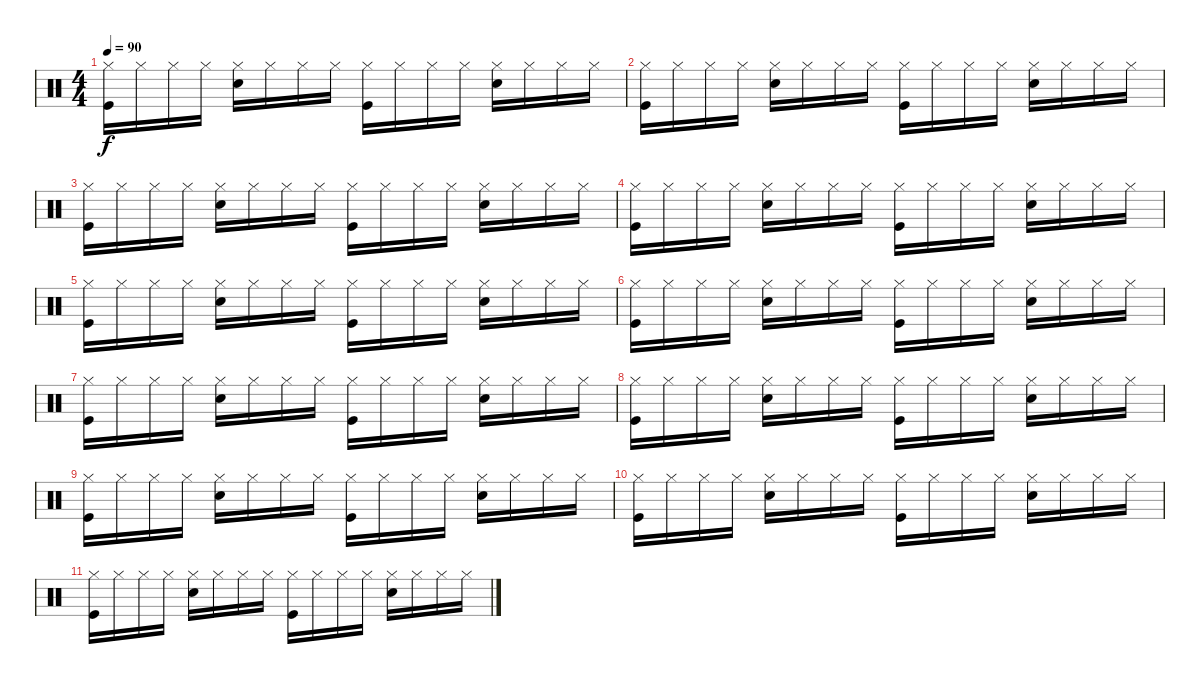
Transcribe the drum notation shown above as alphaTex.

\track "" {instrument percussion}
\staff {score}
\articulation defaults
\ts (4 4)
\tempo 90
\clef neutral
\ks c
("Kick (hit)" "Hi-Hat (closed)").16{dy f} "Hi-Hat (closed)".16 "Hi-Hat (closed)".16 "Hi-Hat (closed)".16 ("Hi-Hat (closed)" "Snare (hit) 2").16 "Hi-Hat (closed)".16 "Hi-Hat (closed)".16 "Hi-Hat (closed)".16 ("Hi-Hat (closed)" "Kick (hit)").16 "Hi-Hat (closed)".16 "Hi-Hat (closed)".16 "Hi-Hat (closed)".16 ("Snare (hit) 2" "Hi-Hat (closed)").16 "Hi-Hat (closed)".16 "Hi-Hat (closed)".16 "Hi-Hat (closed)".16 |
("Hi-Hat (closed)" "Kick (hit)").16 "Hi-Hat (closed)".16 "Hi-Hat (closed)".16 "Hi-Hat (closed)".16 ("Hi-Hat (closed)" "Snare (hit) 2").16 "Hi-Hat (closed)".16 "Hi-Hat (closed)".16 "Hi-Hat (closed)".16 ("Kick (hit)" "Hi-Hat (closed)").16 "Hi-Hat (closed)".16 "Hi-Hat (closed)".16 "Hi-Hat (closed)".16 ("Hi-Hat (closed)" "Snare (hit) 2").16 "Hi-Hat (closed)".16 "Hi-Hat (closed)".16 "Hi-Hat (closed)".16 |
("Hi-Hat (closed)" "Kick (hit)").16 "Hi-Hat (closed)".16 "Hi-Hat (closed)".16 "Hi-Hat (closed)".16 ("Snare (hit) 2" "Hi-Hat (closed)").16 "Hi-Hat (closed)".16 "Hi-Hat (closed)".16 "Hi-Hat (closed)".16 ("Hi-Hat (closed)" "Kick (hit)").16 "Hi-Hat (closed)".16 "Hi-Hat (closed)".16 "Hi-Hat (closed)".16 ("Hi-Hat (closed)" "Snare (hit) 2").16 "Hi-Hat (closed)".16 "Hi-Hat (closed)".16 "Hi-Hat (closed)".16 |
("Kick (hit)" "Hi-Hat (closed)").16 "Hi-Hat (closed)".16 "Hi-Hat (closed)".16 "Hi-Hat (closed)".16 ("Hi-Hat (closed)" "Snare (hit) 2").16 "Hi-Hat (closed)".16 "Hi-Hat (closed)".16 "Hi-Hat (closed)".16 ("Hi-Hat (closed)" "Kick (hit)").16 "Hi-Hat (closed)".16 "Hi-Hat (closed)".16 "Hi-Hat (closed)".16 ("Snare (hit) 2" "Hi-Hat (closed)").16 "Hi-Hat (closed)".16 "Hi-Hat (closed)".16 "Hi-Hat (closed)".16 |
("Hi-Hat (closed)" "Kick (hit)").16 "Hi-Hat (closed)".16 "Hi-Hat (closed)".16 "Hi-Hat (closed)".16 ("Hi-Hat (closed)" "Snare (hit) 2").16 "Hi-Hat (closed)".16 "Hi-Hat (closed)".16 "Hi-Hat (closed)".16 ("Kick (hit)" "Hi-Hat (closed)").16 "Hi-Hat (closed)".16 "Hi-Hat (closed)".16 "Hi-Hat (closed)".16 ("Hi-Hat (closed)" "Snare (hit) 2").16 "Hi-Hat (closed)".16 "Hi-Hat (closed)".16 "Hi-Hat (closed)".16 |
("Hi-Hat (closed)" "Kick (hit)").16{volume 12} "Hi-Hat (closed)".16 "Hi-Hat (closed)".16{volume 12} "Hi-Hat (closed)".16{volume 12} ("Hi-Hat (closed)" "Snare (hit) 2").16{volume 12} "Hi-Hat (closed)".16{volume 12} "Hi-Hat (closed)".16{volume 12} "Hi-Hat (closed)".16{volume 12} ("Kick (hit)" "Hi-Hat (closed)").16{volume 12} "Hi-Hat (closed)".16{volume 12} "Hi-Hat (closed)".16{volume 11} "Hi-Hat (closed)".16{volume 11} ("Snare (hit) 2" "Hi-Hat (closed)").16{volume 11} "Hi-Hat (closed)".16{volume 11} "Hi-Hat (closed)".16{volume 11} "Hi-Hat (closed)".16{volume 11} |
("Kick (hit)" "Hi-Hat (closed)").16{volume 11} "Hi-Hat (closed)".16{volume 10} "Hi-Hat (closed)".16{volume 10} "Hi-Hat (closed)".16{volume 10} ("Hi-Hat (closed)" "Snare (hit) 2").16{volume 10} "Hi-Hat (closed)".16{volume 10} "Hi-Hat (closed)".16{volume 10} "Hi-Hat (closed)".16{volume 10} ("Hi-Hat (closed)" "Kick (hit)").16{volume 10} "Hi-Hat (closed)".16{volume 10} "Hi-Hat (closed)".16{volume 9} "Hi-Hat (closed)".16{volume 9} ("Snare (hit) 2" "Hi-Hat (closed)").16{volume 9} "Hi-Hat (closed)".16{volume 9} "Hi-Hat (closed)".16{volume 9} "Hi-Hat (closed)".16{volume 9} |
("Kick (hit)" "Hi-Hat (closed)").16{volume 9} "Hi-Hat (closed)".16{volume 8} "Hi-Hat (closed)".16{volume 8} "Hi-Hat (closed)".16{volume 8} ("Snare (hit) 2" "Hi-Hat (closed)").16{volume 8} "Hi-Hat (closed)".16{volume 8} "Hi-Hat (closed)".16{volume 8} "Hi-Hat (closed)".16{volume 8} ("Hi-Hat (closed)" "Kick (hit)").16{volume 8} "Hi-Hat (closed)".16{volume 8} "Hi-Hat (closed)".16{volume 7} "Hi-Hat (closed)".16{volume 7} ("Hi-Hat (closed)" "Snare (hit) 2").16{volume 7} "Hi-Hat (closed)".16{volume 7} "Hi-Hat (closed)".16{volume 7} "Hi-Hat (closed)".16{volume 7} |
("Kick (hit)" "Hi-Hat (closed)").16{volume 7} "Hi-Hat (closed)".16{volume 6} "Hi-Hat (closed)".16{volume 6} "Hi-Hat (closed)".16{volume 6} ("Snare (hit) 2" "Hi-Hat (closed)").16{volume 6} "Hi-Hat (closed)".16{volume 6} "Hi-Hat (closed)".16{volume 6} "Hi-Hat (closed)".16{volume 6} ("Kick (hit)" "Hi-Hat (closed)").16{volume 6} "Hi-Hat (closed)".16{volume 6} "Hi-Hat (closed)".16{volume 5} "Hi-Hat (closed)".16{volume 5} ("Hi-Hat (closed)" "Snare (hit) 2").16{volume 5} "Hi-Hat (closed)".16{volume 5} "Hi-Hat (closed)".16{volume 5} "Hi-Hat (closed)".16{volume 5} |
("Kick (hit)" "Hi-Hat (closed)").16 "Hi-Hat (closed)".16{volume 4} "Hi-Hat (closed)".16 "Hi-Hat (closed)".16{volume 4} ("Hi-Hat (closed)" "Snare (hit) 2").16{volume 4} "Hi-Hat (closed)".16{volume 4} "Hi-Hat (closed)".16{volume 4} "Hi-Hat (closed)".16{volume 4} ("Kick (hit)" "Hi-Hat (closed)").16{volume 4} "Hi-Hat (closed)".16{volume 4} "Hi-Hat (closed)".16{volume 4} "Hi-Hat (closed)".16{volume 3} ("Snare (hit) 2" "Hi-Hat (closed)").16{volume 3} "Hi-Hat (closed)".16{volume 3} "Hi-Hat (closed)".16{volume 3} "Hi-Hat (closed)".16 |
("Kick (hit)" "Hi-Hat (closed)").16{volume 3} "Hi-Hat (closed)".16{volume 3} "Hi-Hat (closed)".16{volume 3} "Hi-Hat (closed)".16{volume 2} ("Hi-Hat (closed)" "Snare (hit) 2").16{volume 2} "Hi-Hat (closed)".16{volume 1} "Hi-Hat (closed)".16{volume 1} "Hi-Hat (closed)".16{volume 0} ("Kick (hit)" "Hi-Hat (closed)").16{volume 0} "Hi-Hat (closed)".16{volume 0} "Hi-Hat (closed)".16{volume 0} "Hi-Hat (closed)".16{volume 0} ("Hi-Hat (closed)" "Snare (hit) 2").16 "Hi-Hat (closed)".16 "Hi-Hat (closed)".16 "Hi-Hat (closed)".16
